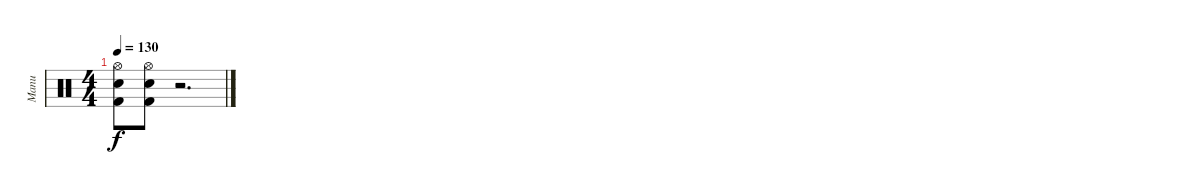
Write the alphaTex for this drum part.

\track ("Manu" "Manu") {instrument percussion}
\staff {score}
\articulation defaults
\ts (4 4)
\tempo 130
\clef neutral
\ks c
("Hi-Hat (open)" "Snare (hit) 2" "Kick (hit) 2").8{dy f} ("Hi-Hat (open)" "Snare (hit) 2" "Kick (hit) 2").8 r.2{d}
